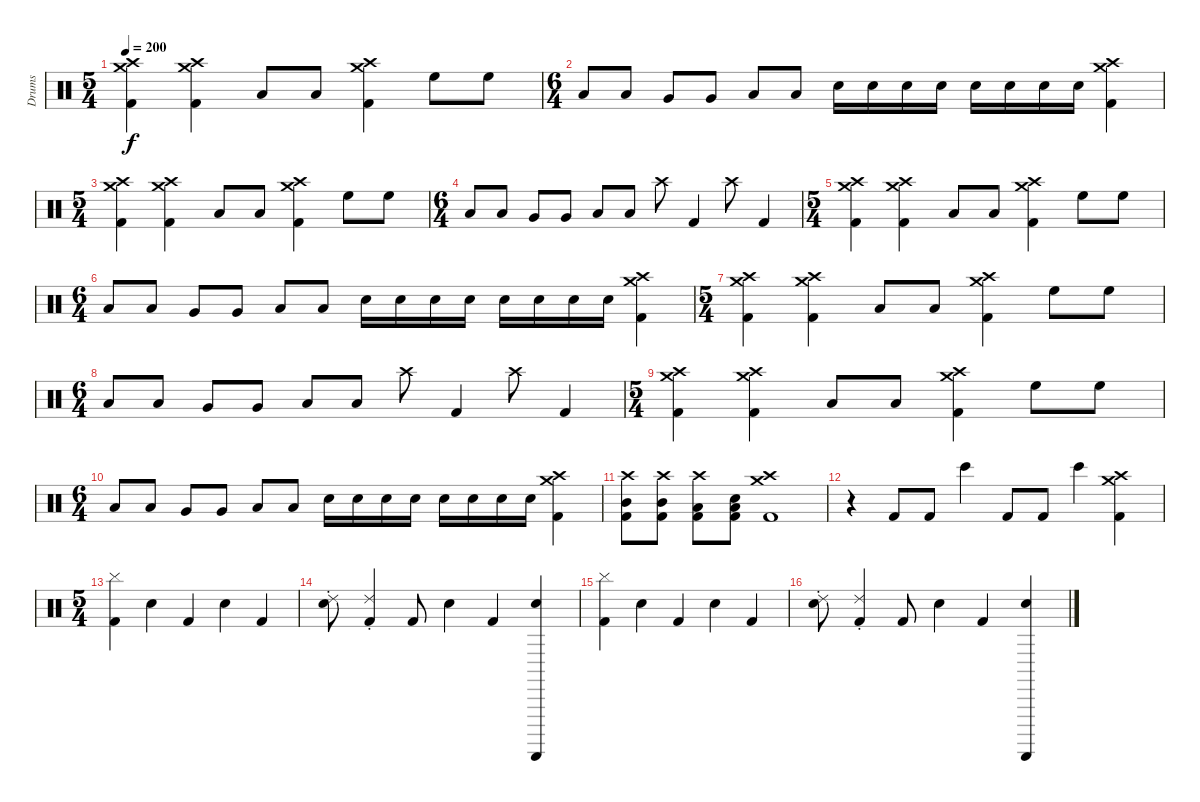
\track ("Drums" "Drums") {instrument percussion}
\staff {score}
\articulation defaults
\ts (5 4)
\tempo 200
\clef neutral
\ks c
("Crash high (hit)" "Crash medium (hit)" "Kick (hit) 2").4{dy f} ("Crash high (hit)" "Crash medium (hit)" "Kick (hit) 2").4 "Low Floor Tom (hit)".8 "Low Floor Tom (hit)".8 ("Crash high (hit)" "Crash medium (hit)" "Kick (hit) 2").4 "High Floor Tom (hit)".8 "High Floor Tom (hit)".8 |
\ts (6 4)
"Low Tom (hit)".8 "Low Tom (hit)".8 "Very Low Tom (hit)".8 "Very Low Tom (hit)".8 "Low Floor Tom (hit)".8 "Low Floor Tom (hit)".8 "Snare (hit) 2".16 "Snare (hit) 2".16 "Snare (hit) 2".16 "Snare (hit) 2".16 "Snare (hit) 2".16 "Snare (hit) 2".16 "Snare (hit) 2".16 "Snare (hit) 2".16 ("Crash medium (hit)" "Crash high (hit)" "Kick (hit) 2").4 |
\ts (5 4)
("Crash high (hit)" "Crash medium (hit)" "Kick (hit) 2").4 ("Crash high (hit)" "Crash medium (hit)" "Kick (hit) 2").4 "Low Floor Tom (hit)".8 "Low Floor Tom (hit)".8 ("Crash high (hit)" "Crash medium (hit)" "Kick (hit) 2").4 "High Floor Tom (hit)".8 "High Floor Tom (hit)".8 |
\ts (6 4)
"Low Tom (hit)".8 "Low Tom (hit)".8 "Very Low Tom (hit)".8 "Very Low Tom (hit)".8 "Low Floor Tom (hit)".8 "Low Floor Tom (hit)".8 "Crash high (hit)".8 "Kick (hit) 2".4 "Crash high (hit)".8 "Kick (hit) 2".4 |
\ts (5 4)
("Crash high (hit)" "Crash medium (hit)" "Kick (hit) 2").4 ("Crash high (hit)" "Crash medium (hit)" "Kick (hit) 2").4 "Low Floor Tom (hit)".8 "Low Floor Tom (hit)".8 ("Crash high (hit)" "Crash medium (hit)" "Kick (hit) 2").4 "High Floor Tom (hit)".8 "High Floor Tom (hit)".8 |
\ts (6 4)
"Low Tom (hit)".8 "Low Tom (hit)".8 "Very Low Tom (hit)".8 "Very Low Tom (hit)".8 "Low Floor Tom (hit)".8 "Low Floor Tom (hit)".8 "Snare (hit) 2".16 "Snare (hit) 2".16 "Snare (hit) 2".16 "Snare (hit) 2".16 "Snare (hit) 2".16 "Snare (hit) 2".16 "Snare (hit) 2".16 "Snare (hit) 2".16 ("Crash medium (hit)" "Crash high (hit)" "Kick (hit) 2").4 |
\ts (5 4)
("Crash high (hit)" "Crash medium (hit)" "Kick (hit) 2").4 ("Crash high (hit)" "Crash medium (hit)" "Kick (hit) 2").4 "Low Floor Tom (hit)".8 "Low Floor Tom (hit)".8 ("Crash high (hit)" "Crash medium (hit)" "Kick (hit) 2").4 "High Floor Tom (hit)".8 "High Floor Tom (hit)".8 |
\ts (6 4)
"Low Tom (hit)".8 "Low Tom (hit)".8 "Very Low Tom (hit)".8 "Very Low Tom (hit)".8 "Low Floor Tom (hit)".8 "Low Floor Tom (hit)".8 "Crash high (hit)".8 "Kick (hit) 2".4 "Crash high (hit)".8 "Kick (hit) 2".4 |
\ts (5 4)
("Crash high (hit)" "Crash medium (hit)" "Kick (hit) 2").4 ("Crash high (hit)" "Crash medium (hit)" "Kick (hit) 2").4 "Low Floor Tom (hit)".8 "Low Floor Tom (hit)".8 ("Crash high (hit)" "Crash medium (hit)" "Kick (hit) 2").4 "High Floor Tom (hit)".8 "High Floor Tom (hit)".8 |
\ts (6 4)
"Low Tom (hit)".8 "Low Tom (hit)".8 "Very Low Tom (hit)".8 "Very Low Tom (hit)".8 "Low Floor Tom (hit)".8 "Low Floor Tom (hit)".8 "Snare (hit) 2".16 "Snare (hit) 2".16 "Snare (hit) 2".16 "Snare (hit) 2".16 "Snare (hit) 2".16 "Snare (hit) 2".16 "Snare (hit) 2".16 "Snare (hit) 2".16 ("Crash medium (hit)" "Crash high (hit)" "Kick (hit) 2").4 |
("Crash high (hit)" "Kick (hit) 2" "Mid Tom (hit)").8 ("Crash high (hit)" "Kick (hit) 2" "Mid Tom (hit)").8 ("Crash high (hit)" "Kick (hit) 2" "Low Tom (hit)").8 ("Snare (hit) 2" "Kick (hit) 2" "Low Tom (hit)").8 ("Crash medium (hit)" "Crash high (hit)" "Kick (hit) 2").1 |
r.4 "Kick (hit) 2".8 "Kick (hit) 2".8 "Bongo High (hit)".4 "Kick (hit) 2".8 "Kick (hit) 2".8 "Bongo High (hit)".4 ("Crash high (hit)" "Crash medium (hit)" "Kick (hit) 2").4 |
\ts (5 4)
("Kick (hit) 2" "Cymbal (hit)").4 "Hand Clap (hit)".4 "Kick (hit) 2".4 "Hand Clap (hit)".4 "Kick (hit) 2".4 |
("Hand Clap (hit)" "Ride (choke) 2").8 ("Kick (hit) 2" "Ride (choke) 2").4 "Kick (hit) 2".8 "Hand Clap (hit)".4 "Kick (hit) 2".4 ("Hand Clap (hit)" "Guiro (scrap-return)").4 |
("Kick (hit) 2" "Cymbal (hit)").4 "Hand Clap (hit)".4 "Kick (hit) 2".4 "Hand Clap (hit)".4 "Kick (hit) 2".4 |
("Hand Clap (hit)" "Ride (choke) 2").8 ("Kick (hit) 2" "Ride (choke) 2").4 "Kick (hit) 2".8 "Hand Clap (hit)".4 "Kick (hit) 2".4 ("Hand Clap (hit)" "Guiro (scrap-return)").4
